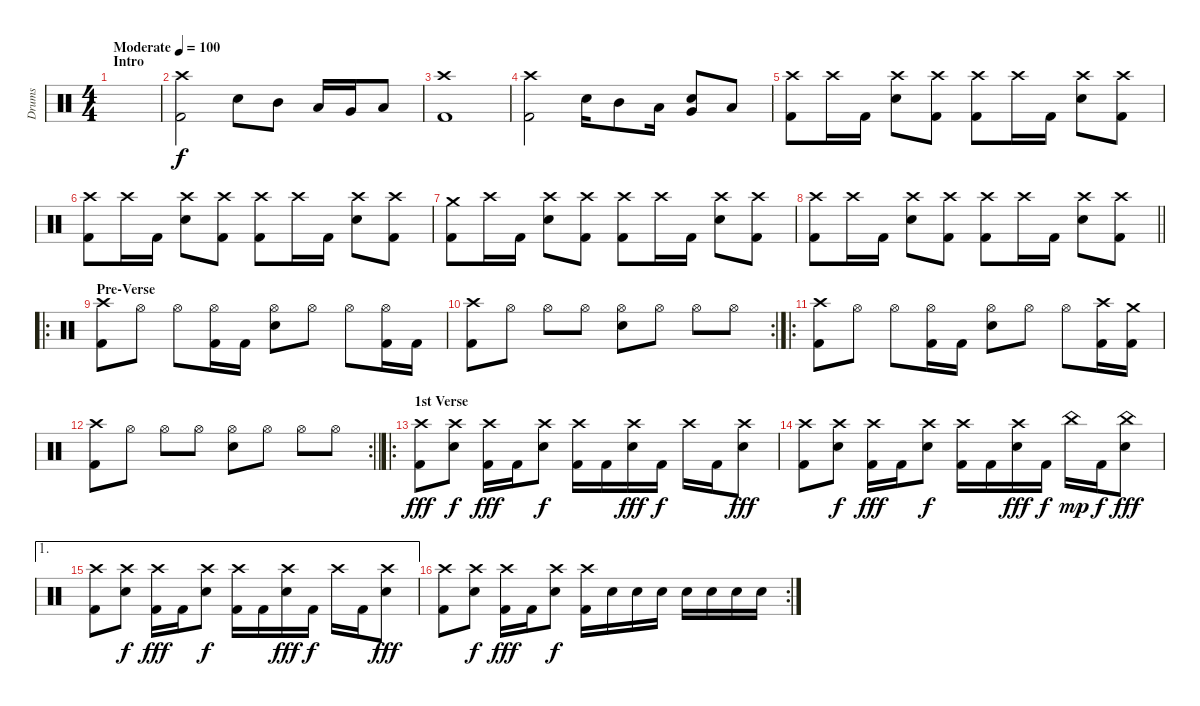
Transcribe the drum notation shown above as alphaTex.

\track ("Drums" "Drums") {instrument percussion}
\staff {score}
\articulation defaults
\ts (4 4)
\section ("" "Intro")
\tempo (100 "Moderate")
\clef neutral
\ks c
|
("Crash high (hit)" "Kick (hit) 2").2 "Snare (hit) 2".8 "Mid Tom (hit)".8 "Low Tom (hit)".16 "Very Low Tom (hit)".16 "Low Floor Tom (hit)".8 |
("Crash high (hit)" "Kick (hit) 2").1 |
("Crash high (hit)" "Kick (hit) 2").2 "Snare (hit) 2".16 "Mid Tom (hit)".8 "Low Tom (hit)".16 ("Very Low Tom (hit)" "Snare (hit) 2").8 "Low Floor Tom (hit)".8 |
("Crash high (hit)" "Kick (hit) 2").8 "Crash high (hit)".16 "Kick (hit) 2".16 ("Crash high (hit)" "Snare (hit) 2").8 ("Crash high (hit)" "Kick (hit) 2").8 ("Crash high (hit)" "Kick (hit) 2").8 "Crash high (hit)".16 "Kick (hit) 2".16 ("Crash high (hit)" "Snare (hit) 2").8 ("Crash high (hit)" "Kick (hit) 2").8 |
("Crash high (hit)" "Kick (hit) 2").8 "Crash high (hit)".16 "Kick (hit) 2".16 ("Crash high (hit)" "Snare (hit) 2").8 ("Crash high (hit)" "Kick (hit) 2").8 ("Crash high (hit)" "Kick (hit) 2").8 "Crash high (hit)".16 "Kick (hit) 2".16 ("Crash high (hit)" "Snare (hit) 2").8 ("Crash high (hit)" "Kick (hit) 2").8 |
("Crash medium (hit)" "Kick (hit) 2").8 "Crash high (hit)".16 "Kick (hit) 2".16 ("Crash high (hit)" "Snare (hit) 2").8 ("Crash high (hit)" "Kick (hit) 2").8 ("Crash high (hit)" "Kick (hit) 2").8 "Crash high (hit)".16 "Kick (hit) 2".16 ("Crash high (hit)" "Snare (hit) 2").8 ("Crash high (hit)" "Kick (hit) 2").8 |
\barLineRight lightlight
("Crash high (hit)" "Kick (hit) 2").8 "Crash high (hit)".16 "Kick (hit) 2".16 ("Crash high (hit)" "Snare (hit) 2").8 ("Crash high (hit)" "Kick (hit) 2").8 ("Crash high (hit)" "Kick (hit) 2").8 "Crash high (hit)".16 "Kick (hit) 2".16 ("Crash high (hit)" "Snare (hit) 2").8 ("Crash high (hit)" "Kick (hit) 2").8 |
\ro
\section ("" "Pre-Verse")
("Crash high (hit)" "Kick (hit) 2").8 "Hi-Hat (open)".8 "Hi-Hat (open)".8 ("Hi-Hat (open)" "Kick (hit) 2").16 "Kick (hit) 2".16 ("Hi-Hat (open)" "Snare (hit) 2").8 "Hi-Hat (open)".8 "Hi-Hat (open)".8 ("Hi-Hat (open)" "Kick (hit) 2").16 "Kick (hit) 2".16 |
\rc 2
("Crash high (hit)" "Kick (hit) 2").8 "Hi-Hat (open)".8 "Hi-Hat (open)".8 "Hi-Hat (open)".8 ("Hi-Hat (open)" "Snare (hit) 2").8 "Hi-Hat (open)".8 "Hi-Hat (open)".8 "Hi-Hat (open)".8 |
\ro
("Crash high (hit)" "Kick (hit) 2").8 "Hi-Hat (open)".8 "Hi-Hat (open)".8 ("Hi-Hat (open)" "Kick (hit) 2").16 "Kick (hit) 2".16 ("Hi-Hat (open)" "Snare (hit) 2").8 "Hi-Hat (open)".8 "Hi-Hat (open)".8 ("Crash high (hit)" "Kick (hit) 2").16 ("Crash medium (hit)" "Kick (hit) 2").16 |
\rc 2
\barLineRight lightlight
("Crash high (hit)" "Kick (hit) 2").8 "Hi-Hat (open)".8 "Hi-Hat (open)".8 "Hi-Hat (open)".8 ("Hi-Hat (open)" "Snare (hit) 2").8 "Hi-Hat (open)".8 "Hi-Hat (open)".8 "Hi-Hat (open)".8 |
\ro
\section ("" "1st Verse")
("Crash high (hit)" "Kick (hit) 2").8{dy fff} ("Crash high (hit)" "Snare (hit) 2").8{dy f} ("Crash high (hit)" "Kick (hit) 2").16{dy fff} "Kick (hit) 2".16 ("Crash high (hit)" "Snare (hit) 2").8{dy f} ("Crash high (hit)" "Kick (hit) 2").16 "Kick (hit) 2".16 ("Crash high (hit)" "Snare (hit) 2").16{dy fff} "Kick (hit) 2".16{dy f} "Crash high (hit)".16 "Kick (hit) 2".16 ("Crash high (hit)" "Snare (hit) 2").8{dy fff} |
("Crash high (hit)" "Kick (hit) 2").8 ("Crash high (hit)" "Snare (hit) 2").8{dy f} ("Crash high (hit)" "Kick (hit) 2").16{dy fff} "Kick (hit) 2".16 ("Crash high (hit)" "Snare (hit) 2").8{dy f} ("Crash high (hit)" "Kick (hit) 2").16 "Kick (hit) 2".16 ("Crash high (hit)" "Snare (hit) 2").16{dy fff} "Kick (hit) 2".16{dy f} "China (hit)".16{dy mp} "Kick (hit) 2".16{dy f} ("China (hit)" "Snare (hit) 2").8{dy fff} |
\ae 1
("Crash high (hit)" "Kick (hit) 2").8 ("Crash high (hit)" "Snare (hit) 2").8{dy f} ("Crash high (hit)" "Kick (hit) 2").16{dy fff} "Kick (hit) 2".16 ("Crash high (hit)" "Snare (hit) 2").8{dy f} ("Crash high (hit)" "Kick (hit) 2").16 "Kick (hit) 2".16 ("Crash high (hit)" "Snare (hit) 2").16{dy fff} "Kick (hit) 2".16{dy f} "Crash high (hit)".16 "Kick (hit) 2".16 ("Crash high (hit)" "Snare (hit) 2").8{dy fff} |
\rc 2
("Crash high (hit)" "Kick (hit) 2").8 ("Crash high (hit)" "Snare (hit) 2").8{dy f} ("Crash high (hit)" "Kick (hit) 2").16{dy fff} "Kick (hit) 2".16 ("Crash high (hit)" "Snare (hit) 2").8{dy f} ("Crash high (hit)" "Kick (hit) 2").16 "Snare (hit) 2".16 "Snare (hit) 2".16 "Snare (hit) 2".16 "Snare (hit) 2".16 "Snare (hit) 2".16 "Snare (hit) 2".16 "Snare (hit) 2".16
